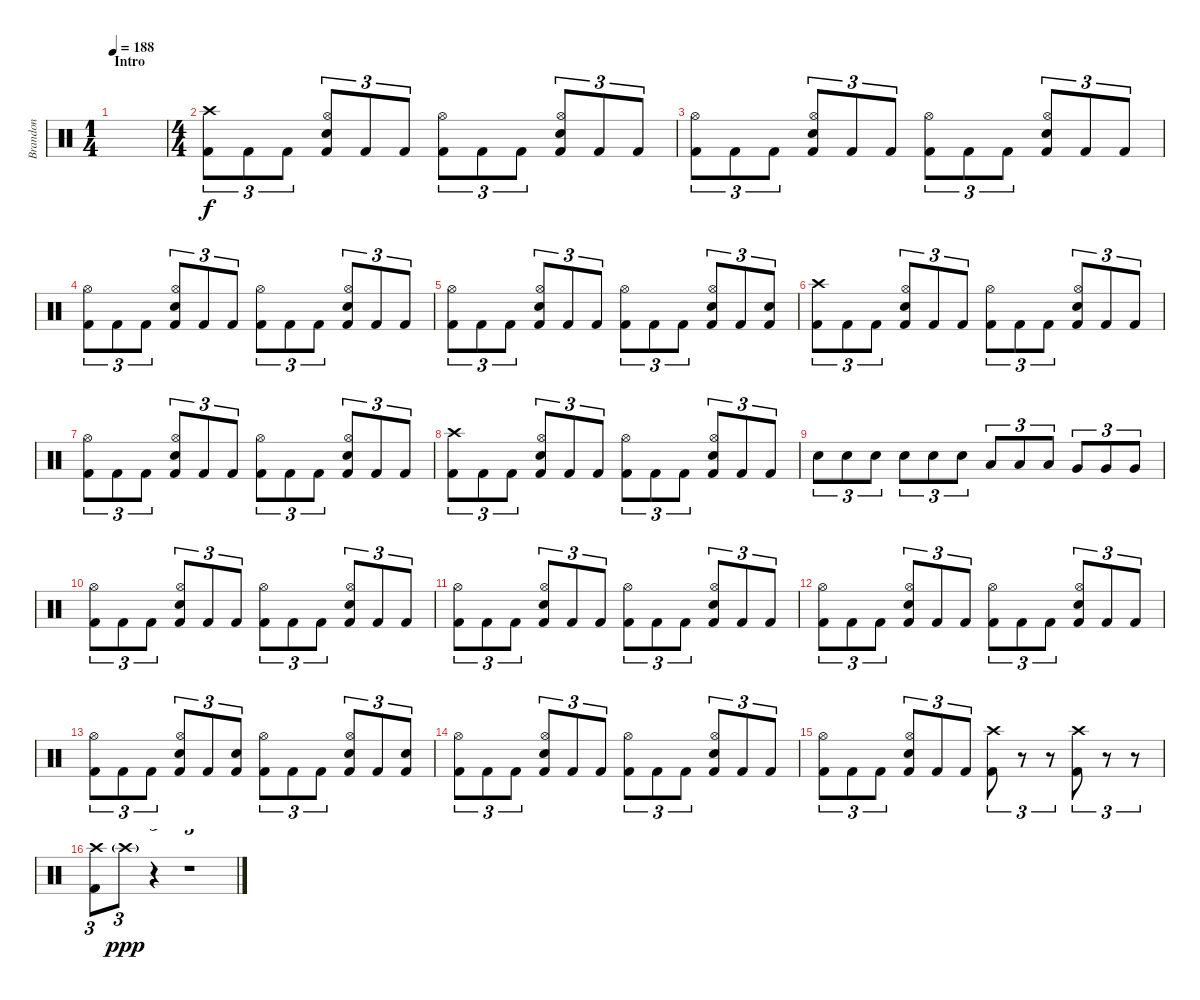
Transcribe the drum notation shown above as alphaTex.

\track ("Brandon" "Brandon") {instrument percussion}
\staff {score}
\articulation defaults
\ts (1 4)
\section ("" "Intro")
\tempo 188
\clef neutral
\ks c
|
\ts (4 4)
("Crash high (hit)" "Kick (hit) 2").8{tu (3 2)} "Kick (hit) 2".8{tu (3 2)} "Kick (hit) 2".8{tu (3 2)} ("Hi-Hat (open)" "Electric Snare (hit)" "Kick (hit) 2").8{tu (3 2)} "Kick (hit) 2".8{tu (3 2)} "Kick (hit) 2".8{tu (3 2)} ("Hi-Hat (open)" "Kick (hit) 2").8{tu (3 2)} "Kick (hit) 2".8{tu (3 2)} "Kick (hit) 2".8{tu (3 2)} ("Hi-Hat (open)" "Electric Snare (hit)" "Kick (hit) 2").8{tu (3 2)} "Kick (hit) 2".8{tu (3 2)} "Kick (hit) 2".8{tu (3 2)} |
("Hi-Hat (open)" "Kick (hit) 2").8{tu (3 2)} "Kick (hit) 2".8{tu (3 2)} "Kick (hit) 2".8{tu (3 2)} ("Hi-Hat (open)" "Electric Snare (hit)" "Kick (hit) 2").8{tu (3 2)} "Kick (hit) 2".8{tu (3 2)} "Kick (hit) 2".8{tu (3 2)} ("Hi-Hat (open)" "Kick (hit) 2").8{tu (3 2)} "Kick (hit) 2".8{tu (3 2)} "Kick (hit) 2".8{tu (3 2)} ("Hi-Hat (open)" "Electric Snare (hit)" "Kick (hit) 2").8{tu (3 2)} "Kick (hit) 2".8{tu (3 2)} "Kick (hit) 2".8{tu (3 2)} |
("Hi-Hat (open)" "Kick (hit) 2").8{tu (3 2)} "Kick (hit) 2".8{tu (3 2)} "Kick (hit) 2".8{tu (3 2)} ("Hi-Hat (open)" "Electric Snare (hit)" "Kick (hit) 2").8{tu (3 2)} "Kick (hit) 2".8{tu (3 2)} "Kick (hit) 2".8{tu (3 2)} ("Hi-Hat (open)" "Kick (hit) 2").8{tu (3 2)} "Kick (hit) 2".8{tu (3 2)} "Kick (hit) 2".8{tu (3 2)} ("Hi-Hat (open)" "Electric Snare (hit)" "Kick (hit) 2").8{tu (3 2)} "Kick (hit) 2".8{tu (3 2)} "Kick (hit) 2".8{tu (3 2)} |
("Hi-Hat (open)" "Kick (hit) 2").8{tu (3 2)} "Kick (hit) 2".8{tu (3 2)} "Kick (hit) 2".8{tu (3 2)} ("Hi-Hat (open)" "Electric Snare (hit)" "Kick (hit) 2").8{tu (3 2)} "Kick (hit) 2".8{tu (3 2)} "Kick (hit) 2".8{tu (3 2)} ("Hi-Hat (open)" "Kick (hit) 2").8{tu (3 2)} "Kick (hit) 2".8{tu (3 2)} "Kick (hit) 2".8{tu (3 2)} ("Hi-Hat (open)" "Electric Snare (hit)" "Kick (hit) 2").8{tu (3 2)} "Kick (hit) 2".8{tu (3 2)} ("Electric Snare (hit)" "Kick (hit) 2").8{tu (3 2)} |
("Crash high (hit)" "Kick (hit) 2").8{tu (3 2)} "Kick (hit) 2".8{tu (3 2)} "Kick (hit) 2".8{tu (3 2)} ("Hi-Hat (open)" "Electric Snare (hit)" "Kick (hit) 2").8{tu (3 2)} "Kick (hit) 2".8{tu (3 2)} "Kick (hit) 2".8{tu (3 2)} ("Hi-Hat (open)" "Kick (hit) 2").8{tu (3 2)} "Kick (hit) 2".8{tu (3 2)} "Kick (hit) 2".8{tu (3 2)} ("Hi-Hat (open)" "Electric Snare (hit)" "Kick (hit) 2").8{tu (3 2)} "Kick (hit) 2".8{tu (3 2)} "Kick (hit) 2".8{tu (3 2)} |
("Hi-Hat (open)" "Kick (hit) 2").8{tu (3 2)} "Kick (hit) 2".8{tu (3 2)} "Kick (hit) 2".8{tu (3 2)} ("Hi-Hat (open)" "Electric Snare (hit)" "Kick (hit) 2").8{tu (3 2)} "Kick (hit) 2".8{tu (3 2)} "Kick (hit) 2".8{tu (3 2)} ("Hi-Hat (open)" "Kick (hit) 2").8{tu (3 2)} "Kick (hit) 2".8{tu (3 2)} "Kick (hit) 2".8{tu (3 2)} ("Hi-Hat (open)" "Electric Snare (hit)" "Kick (hit) 2").8{tu (3 2)} "Kick (hit) 2".8{tu (3 2)} "Kick (hit) 2".8{tu (3 2)} |
("Crash high (hit)" "Kick (hit) 2").8{tu (3 2)} "Kick (hit) 2".8{tu (3 2)} "Kick (hit) 2".8{tu (3 2)} ("Hi-Hat (open)" "Electric Snare (hit)" "Kick (hit) 2").8{tu (3 2)} "Kick (hit) 2".8{tu (3 2)} "Kick (hit) 2".8{tu (3 2)} ("Hi-Hat (open)" "Kick (hit) 2").8{tu (3 2)} "Kick (hit) 2".8{tu (3 2)} "Kick (hit) 2".8{tu (3 2)} ("Hi-Hat (open)" "Electric Snare (hit)" "Kick (hit) 2").8{tu (3 2)} "Kick (hit) 2".8{tu (3 2)} "Kick (hit) 2".8{tu (3 2)} |
"Electric Snare (hit)".8{tu (3 2)} "Electric Snare (hit)".8{tu (3 2)} "Electric Snare (hit)".8{tu (3 2)} "Electric Snare (hit)".8{tu (3 2)} "Electric Snare (hit)".8{tu (3 2)} "Electric Snare (hit)".8{tu (3 2)} "Low Tom (hit)".8{tu (3 2)} "Low Tom (hit)".8{tu (3 2)} "Low Tom (hit)".8{tu (3 2)} "Very Low Tom (hit)".8{tu (3 2)} "Very Low Tom (hit)".8{tu (3 2)} "Very Low Tom (hit)".8{tu (3 2)} |
("Hi-Hat (open)" "Kick (hit) 2").8{tu (3 2)} "Kick (hit) 2".8{tu (3 2)} "Kick (hit) 2".8{tu (3 2)} ("Hi-Hat (open)" "Electric Snare (hit)" "Kick (hit) 2").8{tu (3 2)} "Kick (hit) 2".8{tu (3 2)} "Kick (hit) 2".8{tu (3 2)} ("Hi-Hat (open)" "Kick (hit) 2").8{tu (3 2)} "Kick (hit) 2".8{tu (3 2)} "Kick (hit) 2".8{tu (3 2)} ("Hi-Hat (open)" "Electric Snare (hit)" "Kick (hit) 2").8{tu (3 2)} "Kick (hit) 2".8{tu (3 2)} "Kick (hit) 2".8{tu (3 2)} |
("Hi-Hat (open)" "Kick (hit) 2").8{tu (3 2)} "Kick (hit) 2".8{tu (3 2)} "Kick (hit) 2".8{tu (3 2)} ("Hi-Hat (open)" "Electric Snare (hit)" "Kick (hit) 2").8{tu (3 2)} "Kick (hit) 2".8{tu (3 2)} "Kick (hit) 2".8{tu (3 2)} ("Hi-Hat (open)" "Kick (hit) 2").8{tu (3 2)} "Kick (hit) 2".8{tu (3 2)} "Kick (hit) 2".8{tu (3 2)} ("Hi-Hat (open)" "Electric Snare (hit)" "Kick (hit) 2").8{tu (3 2)} "Kick (hit) 2".8{tu (3 2)} "Kick (hit) 2".8{tu (3 2)} |
("Hi-Hat (open)" "Kick (hit) 2").8{tu (3 2)} "Kick (hit) 2".8{tu (3 2)} "Kick (hit) 2".8{tu (3 2)} ("Hi-Hat (open)" "Electric Snare (hit)" "Kick (hit) 2").8{tu (3 2)} "Kick (hit) 2".8{tu (3 2)} "Kick (hit) 2".8{tu (3 2)} ("Hi-Hat (open)" "Kick (hit) 2").8{tu (3 2)} "Kick (hit) 2".8{tu (3 2)} "Kick (hit) 2".8{tu (3 2)} ("Hi-Hat (open)" "Electric Snare (hit)" "Kick (hit) 2").8{tu (3 2)} "Kick (hit) 2".8{tu (3 2)} "Kick (hit) 2".8{tu (3 2)} |
("Hi-Hat (open)" "Kick (hit) 2").8{tu (3 2)} "Kick (hit) 2".8{tu (3 2)} "Kick (hit) 2".8{tu (3 2)} ("Hi-Hat (open)" "Electric Snare (hit)" "Kick (hit) 2").8{tu (3 2)} "Kick (hit) 2".8{tu (3 2)} ("Electric Snare (hit)" "Kick (hit) 2").8{tu (3 2)} ("Hi-Hat (open)" "Kick (hit) 2").8{tu (3 2)} "Kick (hit) 2".8{tu (3 2)} "Kick (hit) 2".8{tu (3 2)} ("Hi-Hat (open)" "Electric Snare (hit)" "Kick (hit) 2").8{tu (3 2)} "Kick (hit) 2".8{tu (3 2)} ("Electric Snare (hit)" "Kick (hit) 2").8{tu (3 2)} |
("Hi-Hat (open)" "Kick (hit) 2").8{tu (3 2)} "Kick (hit) 2".8{tu (3 2)} "Kick (hit) 2".8{tu (3 2)} ("Hi-Hat (open)" "Electric Snare (hit)" "Kick (hit) 2").8{tu (3 2)} "Kick (hit) 2".8{tu (3 2)} "Kick (hit) 2".8{tu (3 2)} ("Hi-Hat (open)" "Kick (hit) 2").8{tu (3 2)} "Kick (hit) 2".8{tu (3 2)} "Kick (hit) 2".8{tu (3 2)} ("Hi-Hat (open)" "Electric Snare (hit)" "Kick (hit) 2").8{tu (3 2)} "Kick (hit) 2".8{tu (3 2)} "Kick (hit) 2".8{tu (3 2)} |
("Hi-Hat (open)" "Kick (hit) 2").8{tu (3 2)} "Kick (hit) 2".8{tu (3 2)} "Kick (hit) 2".8{tu (3 2)} ("Hi-Hat (open)" "Electric Snare (hit)" "Kick (hit) 2").8{tu (3 2)} "Kick (hit) 2".8{tu (3 2)} "Kick (hit) 2".8{tu (3 2)} ("Crash high (hit)" "Kick (hit) 2").8{tu (3 2)} r.8{tu (3 2)} r.8{tu (3 2)} ("Crash high (hit)" "Kick (hit) 2").8{tu (3 2)} r.8{tu (3 2)} r.8{tu (3 2)} |
("Crash high (hit)" "Kick (hit) 2").8{tu (3 2)} "Crash high (hit)"{g}.8{tu (3 2) dy ppp} r.4{tu (3 2)} r.1{tu (3 2)}
